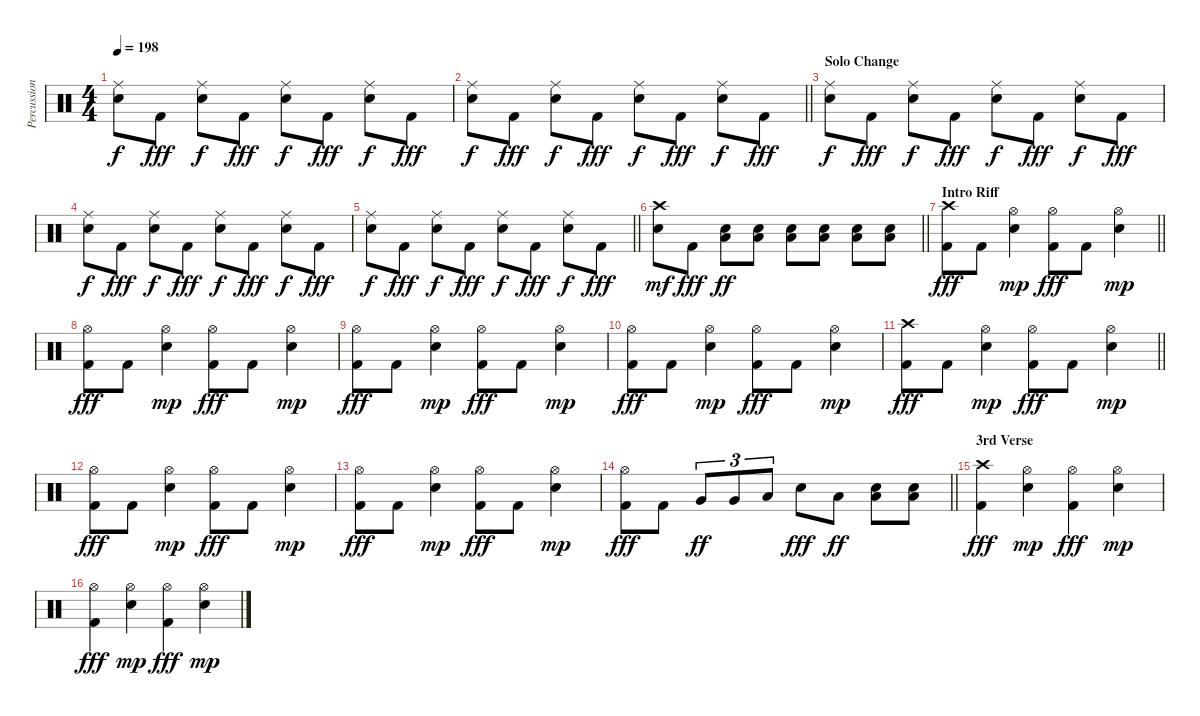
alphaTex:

\track ("Percussion" "Percussion") {instrument percussion}
\staff {score}
\articulation defaults
\ts (4 4)
\tempo 198
\clef neutral
\ks c
("Ride (middle)" "Snare (hit) 2").8{dy f} "Kick (hit) 2".8{dy fff} ("Ride (middle)" "Snare (hit) 2").8{dy f} "Kick (hit) 2".8{dy fff} ("Ride (middle)" "Snare (hit) 2").8{dy f} "Kick (hit) 2".8{dy fff} ("Ride (middle)" "Snare (hit) 2").8{dy f} "Kick (hit) 2".8{dy fff} |
\barLineRight lightlight
("Ride (middle)" "Snare (hit) 2").8{dy f} "Kick (hit) 2".8{dy fff} ("Ride (middle)" "Snare (hit) 2").8{dy f} "Kick (hit) 2".8{dy fff} ("Ride (middle)" "Snare (hit) 2").8{dy f} "Kick (hit) 2".8{dy fff} ("Ride (middle)" "Snare (hit) 2").8{dy f} "Kick (hit) 2".8{dy fff} |
\section ("" "Solo Change")
("Ride (middle)" "Snare (hit) 2").8{dy f} "Kick (hit) 2".8{dy fff} ("Ride (middle)" "Snare (hit) 2").8{dy f} "Kick (hit) 2".8{dy fff} ("Ride (middle)" "Snare (hit) 2").8{dy f} "Kick (hit) 2".8{dy fff} ("Ride (middle)" "Snare (hit) 2").8{dy f} "Kick (hit) 2".8{dy fff} |
("Ride (middle)" "Snare (hit) 2").8{dy f} "Kick (hit) 2".8{dy fff} ("Ride (middle)" "Snare (hit) 2").8{dy f} "Kick (hit) 2".8{dy fff} ("Ride (middle)" "Snare (hit) 2").8{dy f} "Kick (hit) 2".8{dy fff} ("Ride (middle)" "Snare (hit) 2").8{dy f} "Kick (hit) 2".8{dy fff} |
\barLineRight lightlight
("Ride (middle)" "Snare (hit) 2").8{dy f} "Kick (hit) 2".8{dy fff} ("Ride (middle)" "Snare (hit) 2").8{dy f} "Kick (hit) 2".8{dy fff} ("Ride (middle)" "Snare (hit) 2").8{dy f} "Kick (hit) 2".8{dy fff} ("Ride (middle)" "Snare (hit) 2").8{dy f} "Kick (hit) 2".8{dy fff} |
\section ("" "")
\barLineRight lightlight
("Crash high (hit)" "Snare (hit) 2").8{dy mf} "Kick (hit) 2".8{dy fff} ("Low Floor Tom (hit)" "Snare (hit) 2").8{dy ff} ("Low Floor Tom (hit)" "Snare (hit) 2").8 ("Low Floor Tom (hit)" "Snare (hit) 2").8 ("Low Floor Tom (hit)" "Snare (hit) 2").8 ("Low Floor Tom (hit)" "Snare (hit) 2").8 ("Low Floor Tom (hit)" "Snare (hit) 2").8 |
\section ("" "Intro Riff")
\barLineRight lightlight
("Crash high (hit)" "Kick (hit) 2").8{dy fff} "Kick (hit) 2".8 ("Hi-Hat (open)" "Snare (hit) 2").4{dy mp} ("Hi-Hat (open)" "Kick (hit) 2").8{dy fff} "Kick (hit) 2".8 ("Hi-Hat (open)" "Snare (hit) 2").4{dy mp} |
("Hi-Hat (open)" "Kick (hit) 2").8{dy fff} "Kick (hit) 2".8 ("Hi-Hat (open)" "Snare (hit) 2").4{dy mp} ("Hi-Hat (open)" "Kick (hit) 2").8{dy fff} "Kick (hit) 2".8 ("Hi-Hat (open)" "Snare (hit) 2").4{dy mp} |
("Hi-Hat (open)" "Kick (hit) 2").8{dy fff} "Kick (hit) 2".8 ("Hi-Hat (open)" "Snare (hit) 2").4{dy mp} ("Hi-Hat (open)" "Kick (hit) 2").8{dy fff} "Kick (hit) 2".8 ("Hi-Hat (open)" "Snare (hit) 2").4{dy mp} |
("Hi-Hat (open)" "Kick (hit) 2").8{dy fff} "Kick (hit) 2".8 ("Hi-Hat (open)" "Snare (hit) 2").4{dy mp} ("Hi-Hat (open)" "Kick (hit) 2").8{dy fff} "Kick (hit) 2".8 ("Hi-Hat (open)" "Snare (hit) 2").4{dy mp} |
\barLineRight lightlight
("Crash high (hit)" "Kick (hit) 2").8{dy fff} "Kick (hit) 2".8 ("Hi-Hat (open)" "Snare (hit) 2").4{dy mp} ("Hi-Hat (open)" "Kick (hit) 2").8{dy fff} "Kick (hit) 2".8 ("Hi-Hat (open)" "Snare (hit) 2").4{dy mp} |
("Hi-Hat (open)" "Kick (hit) 2").8{dy fff} "Kick (hit) 2".8 ("Hi-Hat (open)" "Snare (hit) 2").4{dy mp} ("Hi-Hat (open)" "Kick (hit) 2").8{dy fff} "Kick (hit) 2".8 ("Hi-Hat (open)" "Snare (hit) 2").4{dy mp} |
("Hi-Hat (open)" "Kick (hit) 2").8{dy fff} "Kick (hit) 2".8 ("Hi-Hat (open)" "Snare (hit) 2").4{dy mp} ("Hi-Hat (open)" "Kick (hit) 2").8{dy fff} "Kick (hit) 2".8 ("Hi-Hat (open)" "Snare (hit) 2").4{dy mp} |
\barLineRight lightlight
("Hi-Hat (open)" "Kick (hit) 2").8{dy fff} "Kick (hit) 2".8 "Very Low Tom (hit)".8{tu (3 2) dy ff} "Very Low Tom (hit)".8{tu (3 2)} "Low Tom (hit)".8{tu (3 2)} "Snare (hit) 2".8{dy fff} "Low Tom (hit)".8{dy ff} ("Low Floor Tom (hit)" "Snare (hit) 2").8 ("Low Floor Tom (hit)" "Snare (hit) 2").8 |
\section ("" "3rd Verse")
("Crash high (hit)" "Kick (hit) 2").4{dy fff} ("Hi-Hat (open)" "Snare (hit) 2").4{dy mp} ("Hi-Hat (open)" "Kick (hit) 2").4{dy fff} ("Hi-Hat (open)" "Snare (hit) 2").4{dy mp} |
("Hi-Hat (open)" "Kick (hit) 2").4{dy fff} ("Hi-Hat (open)" "Snare (hit) 2").4{dy mp} ("Hi-Hat (open)" "Kick (hit) 2").4{dy fff} ("Hi-Hat (open)" "Snare (hit) 2").4{dy mp}
